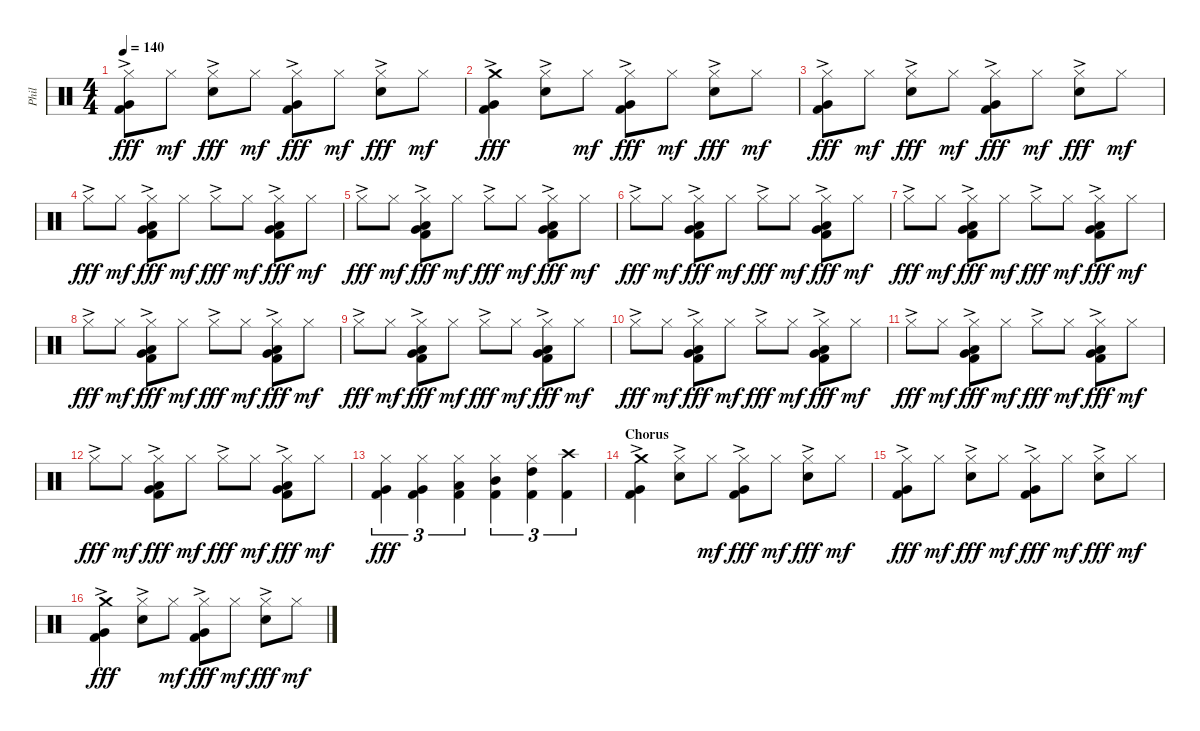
\track ("Phil" "Phil") {instrument percussion}
\staff {score}
\articulation defaults
\ts (4 4)
\tempo 140
\clef neutral
\ks c
("Hi-Hat (closed)"{ac} "Very Low Tom (hit)"{ac} "Kick (hit) 2"{ac}).8{dy fff} "Hi-Hat (closed)".8{dy mf} ("Hi-Hat (closed)"{ac} "Snare (hit) 2").8{dy fff} "Hi-Hat (closed)".8{dy mf} ("Hi-Hat (closed)"{ac} "Very Low Tom (hit)"{ac} "Kick (hit) 2"{ac}).8{dy fff} "Hi-Hat (closed)".8{dy mf} ("Hi-Hat (closed)"{ac} "Snare (hit) 2").8{dy fff} "Hi-Hat (closed)".8{dy mf} |
("Crash medium (hit)"{ac} "Very Low Tom (hit)"{ac} "Kick (hit) 2"{ac}).4{dy fff} ("Hi-Hat (closed)"{ac} "Snare (hit) 2").8 "Hi-Hat (closed)".8{dy mf} ("Hi-Hat (closed)"{ac} "Very Low Tom (hit)"{ac} "Kick (hit) 2"{ac}).8{dy fff} "Hi-Hat (closed)".8{dy mf} ("Hi-Hat (closed)"{ac} "Snare (hit) 2").8{dy fff} "Hi-Hat (closed)".8{dy mf} |
("Hi-Hat (closed)"{ac} "Very Low Tom (hit)"{ac} "Kick (hit) 2"{ac}).8{dy fff} "Hi-Hat (closed)".8{dy mf} ("Hi-Hat (closed)"{ac} "Snare (hit) 2").8{dy fff} "Hi-Hat (closed)".8{dy mf} ("Hi-Hat (closed)"{ac} "Very Low Tom (hit)"{ac} "Kick (hit) 2"{ac}).8{dy fff} "Hi-Hat (closed)".8{dy mf} ("Hi-Hat (closed)"{ac} "Snare (hit) 2").8{dy fff} "Hi-Hat (closed)".8{dy mf} |
"Hi-Hat (closed)"{ac}.8{dy fff} "Hi-Hat (closed)".8{dy mf} ("Hi-Hat (closed)"{ac} "Very Low Tom (hit)" "Low Floor Tom (hit)" "Kick (hit) 2").8{dy fff} "Hi-Hat (closed)".8{dy mf} "Hi-Hat (closed)"{ac}.8{dy fff} "Hi-Hat (closed)".8{dy mf} ("Hi-Hat (closed)"{ac} "Very Low Tom (hit)" "Low Floor Tom (hit)" "Kick (hit) 2").8{dy fff} "Hi-Hat (closed)".8{dy mf} |
"Hi-Hat (closed)"{ac}.8{dy fff} "Hi-Hat (closed)".8{dy mf} ("Hi-Hat (closed)"{ac} "Very Low Tom (hit)" "Low Floor Tom (hit)" "Kick (hit) 2").8{dy fff} "Hi-Hat (closed)".8{dy mf} "Hi-Hat (closed)"{ac}.8{dy fff} "Hi-Hat (closed)".8{dy mf} ("Hi-Hat (closed)"{ac} "Very Low Tom (hit)" "Low Floor Tom (hit)" "Kick (hit) 2").8{dy fff} "Hi-Hat (closed)".8{dy mf} |
"Hi-Hat (closed)"{ac}.8{dy fff} "Hi-Hat (closed)".8{dy mf} ("Hi-Hat (closed)"{ac} "Very Low Tom (hit)" "Low Floor Tom (hit)" "Kick (hit) 2").8{dy fff} "Hi-Hat (closed)".8{dy mf} "Hi-Hat (closed)"{ac}.8{dy fff} "Hi-Hat (closed)".8{dy mf} ("Hi-Hat (closed)"{ac} "Very Low Tom (hit)" "Low Floor Tom (hit)" "Kick (hit) 2").8{dy fff} "Hi-Hat (closed)".8{dy mf} |
"Hi-Hat (closed)"{ac}.8{dy fff} "Hi-Hat (closed)".8{dy mf} ("Hi-Hat (closed)"{ac} "Very Low Tom (hit)" "Low Floor Tom (hit)" "Kick (hit) 2").8{dy fff} "Hi-Hat (closed)".8{dy mf} "Hi-Hat (closed)"{ac}.8{dy fff} "Hi-Hat (closed)".8{dy mf} ("Hi-Hat (closed)"{ac} "Very Low Tom (hit)" "Low Floor Tom (hit)" "Kick (hit) 2").8{dy fff} "Hi-Hat (closed)".8{dy mf} |
"Hi-Hat (closed)"{ac}.8{dy fff} "Hi-Hat (closed)".8{dy mf} ("Hi-Hat (closed)"{ac} "Very Low Tom (hit)" "Low Floor Tom (hit)" "Kick (hit) 2").8{dy fff} "Hi-Hat (closed)".8{dy mf} "Hi-Hat (closed)"{ac}.8{dy fff} "Hi-Hat (closed)".8{dy mf} ("Hi-Hat (closed)"{ac} "Very Low Tom (hit)" "Low Floor Tom (hit)" "Kick (hit) 2").8{dy fff} "Hi-Hat (closed)".8{dy mf} |
"Hi-Hat (closed)"{ac}.8{dy fff} "Hi-Hat (closed)".8{dy mf} ("Hi-Hat (closed)"{ac} "Very Low Tom (hit)" "Low Floor Tom (hit)" "Kick (hit) 2").8{dy fff} "Hi-Hat (closed)".8{dy mf} "Hi-Hat (closed)"{ac}.8{dy fff} "Hi-Hat (closed)".8{dy mf} ("Hi-Hat (closed)"{ac} "Very Low Tom (hit)" "Low Floor Tom (hit)" "Kick (hit) 2").8{dy fff} "Hi-Hat (closed)".8{dy mf} |
"Hi-Hat (closed)"{ac}.8{dy fff} "Hi-Hat (closed)".8{dy mf} ("Hi-Hat (closed)"{ac} "Very Low Tom (hit)" "Low Floor Tom (hit)" "Kick (hit) 2").8{dy fff} "Hi-Hat (closed)".8{dy mf} "Hi-Hat (closed)"{ac}.8{dy fff} "Hi-Hat (closed)".8{dy mf} ("Hi-Hat (closed)"{ac} "Very Low Tom (hit)" "Low Floor Tom (hit)" "Kick (hit) 2").8{dy fff} "Hi-Hat (closed)".8{dy mf} |
"Hi-Hat (closed)"{ac}.8{dy fff} "Hi-Hat (closed)".8{dy mf} ("Hi-Hat (closed)"{ac} "Very Low Tom (hit)" "Low Floor Tom (hit)" "Kick (hit) 2").8{dy fff} "Hi-Hat (closed)".8{dy mf} "Hi-Hat (closed)"{ac}.8{dy fff} "Hi-Hat (closed)".8{dy mf} ("Hi-Hat (closed)"{ac} "Very Low Tom (hit)" "Low Floor Tom (hit)" "Kick (hit) 2").8{dy fff} "Hi-Hat (closed)".8{dy mf} |
"Hi-Hat (closed)"{ac}.8{dy fff} "Hi-Hat (closed)".8{dy mf} ("Hi-Hat (closed)"{ac} "Very Low Tom (hit)" "Low Floor Tom (hit)" "Kick (hit) 2").8{dy fff} "Hi-Hat (closed)".8{dy mf} "Hi-Hat (closed)"{ac}.8{dy fff} "Hi-Hat (closed)".8{dy mf} ("Hi-Hat (closed)"{ac} "Very Low Tom (hit)" "Low Floor Tom (hit)" "Kick (hit) 2").8{dy fff} "Hi-Hat (closed)".8{dy mf} |
("Hi-Hat (closed)" "Very Low Tom (hit)" "Kick (hit) 2").4{tu (3 2) dy fff} ("Hi-Hat (closed)" "Very Low Tom (hit)" "Kick (hit) 2").4{tu (3 2)} ("Hi-Hat (closed)" "Low Floor Tom (hit)" "Kick (hit) 2").4{tu (3 2)} ("Hi-Hat (closed)" "Mid Tom (hit)" "Kick (hit) 2").4{tu (3 2)} ("Hi-Hat (closed)" "High Tom (hit)" "Kick (hit) 2").4{tu (3 2)} ("Crash high (hit)" "Kick (hit) 2").4{tu (3 2)} |
\section ("" "Chorus")
("Crash medium (hit)"{ac} "Very Low Tom (hit)"{ac} "Kick (hit) 2"{ac}).4 ("Hi-Hat (closed)"{ac} "Snare (hit) 2").8 "Hi-Hat (closed)".8{dy mf} ("Hi-Hat (closed)"{ac} "Very Low Tom (hit)"{ac} "Kick (hit) 2"{ac}).8{dy fff} "Hi-Hat (closed)".8{dy mf} ("Hi-Hat (closed)"{ac} "Snare (hit) 2").8{dy fff} "Hi-Hat (closed)".8{dy mf} |
("Hi-Hat (closed)"{ac} "Very Low Tom (hit)"{ac} "Kick (hit) 2"{ac}).8{dy fff} "Hi-Hat (closed)".8{dy mf} ("Hi-Hat (closed)"{ac} "Snare (hit) 2").8{dy fff} "Hi-Hat (closed)".8{dy mf} ("Hi-Hat (closed)"{ac} "Very Low Tom (hit)"{ac} "Kick (hit) 2"{ac}).8{dy fff} "Hi-Hat (closed)".8{dy mf} ("Hi-Hat (closed)"{ac} "Snare (hit) 2").8{dy fff} "Hi-Hat (closed)".8{dy mf} |
("Crash medium (hit)"{ac} "Very Low Tom (hit)"{ac} "Kick (hit) 2"{ac}).4{dy fff} ("Hi-Hat (closed)"{ac} "Snare (hit) 2").8 "Hi-Hat (closed)".8{dy mf} ("Hi-Hat (closed)"{ac} "Very Low Tom (hit)"{ac} "Kick (hit) 2"{ac}).8{dy fff} "Hi-Hat (closed)".8{dy mf} ("Hi-Hat (closed)"{ac} "Snare (hit) 2").8{dy fff} "Hi-Hat (closed)".8{dy mf}
